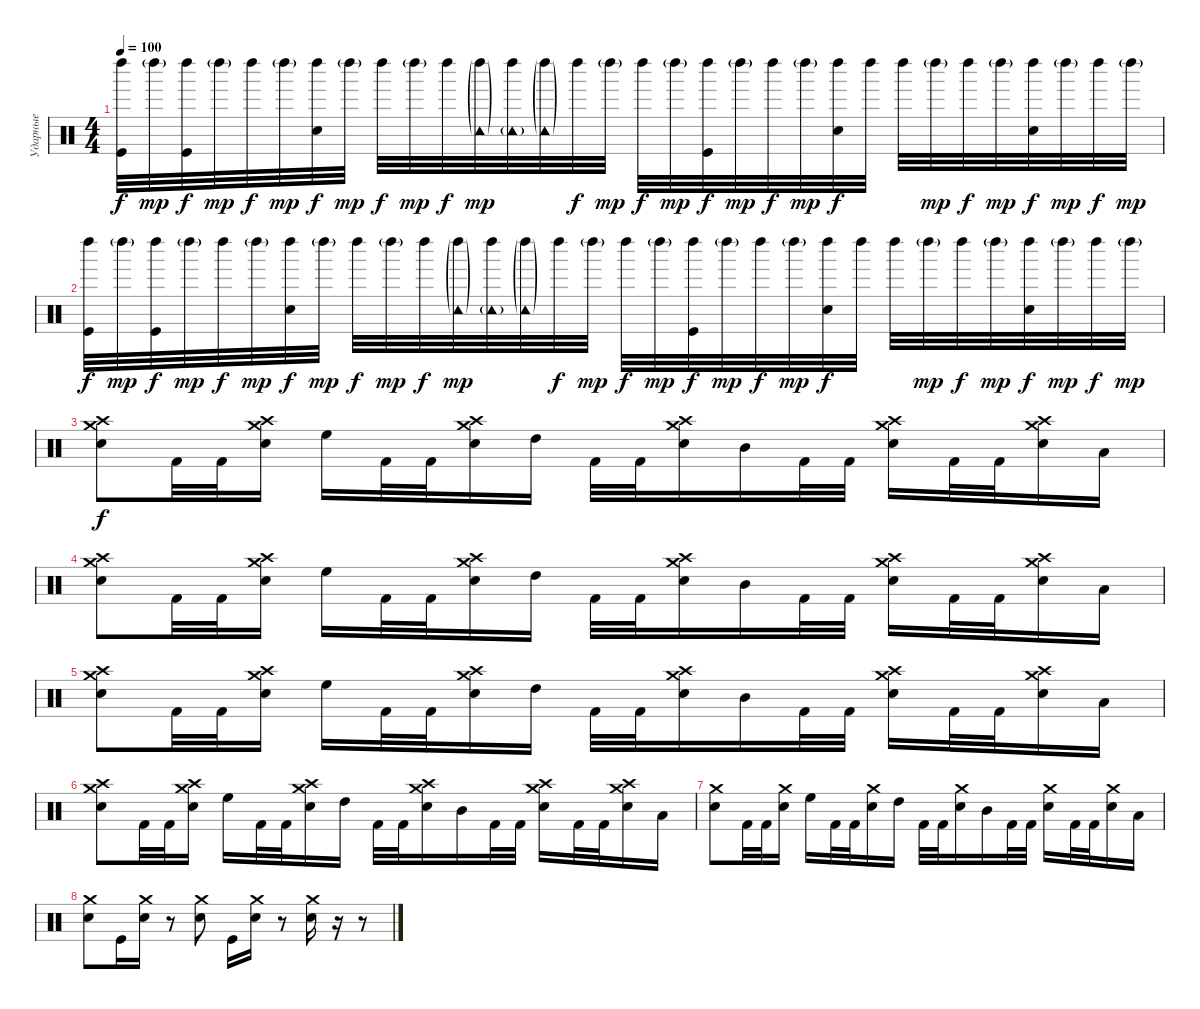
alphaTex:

\track ("Ударные" "Ударные") {instrument percussion}
\staff {score}
\articulation defaults
\ts (4 4)
\tempo 100
\clef neutral
\ks c
("Left Maraca (hit)" "Kick (hit)").32{dy f} "Left Maraca (hit)"{g}.32{dy mp} ("Left Maraca (hit)" "Kick (hit)").32{dy f} "Left Maraca (hit)"{g}.32{dy mp} "Left Maraca (hit)".32{dy f} "Left Maraca (hit)"{g}.32{dy mp} ("Left Maraca (hit)" "Electric Snare (hit)").32{dy f} "Left Maraca (hit)"{g}.32{dy mp} "Left Maraca (hit)".32{dy f} "Left Maraca (hit)"{g}.32{dy mp} "Left Maraca (hit)".32{dy f} ("Left Maraca (hit)"{g} "Tambourine (hit)"{g}).32{dy mp} ("Left Maraca (hit)" "Tambourine (hit)"{g}).32 ("Left Maraca (hit)"{g} "Tambourine (hit)"{g}).32 "Left Maraca (hit)".32{dy f} "Left Maraca (hit)"{g}.32{dy mp} "Left Maraca (hit)".32{dy f} "Left Maraca (hit)"{g}.32{dy mp} ("Left Maraca (hit)" "Kick (hit)").32{dy f} "Left Maraca (hit)"{g}.32{dy mp} "Left Maraca (hit)".32{dy f} "Left Maraca (hit)"{g}.32{dy mp} ("Left Maraca (hit)" "Electric Snare (hit)").32{dy f} "Left Maraca (hit)".32 "Left Maraca (hit)".32 "Left Maraca (hit)"{g}.32{dy mp} "Left Maraca (hit)".32{dy f} "Left Maraca (hit)"{g}.32{dy mp} ("Left Maraca (hit)" "Electric Snare (hit)").32{dy f} "Left Maraca (hit)"{g}.32{dy mp} "Left Maraca (hit)".32{dy f} "Left Maraca (hit)"{g}.32{dy mp} |
("Left Maraca (hit)" "Kick (hit)").32{dy f} "Left Maraca (hit)"{g}.32{dy mp} ("Left Maraca (hit)" "Kick (hit)").32{dy f} "Left Maraca (hit)"{g}.32{dy mp} "Left Maraca (hit)".32{dy f} "Left Maraca (hit)"{g}.32{dy mp} ("Left Maraca (hit)" "Electric Snare (hit)").32{dy f} "Left Maraca (hit)"{g}.32{dy mp} "Left Maraca (hit)".32{dy f} "Left Maraca (hit)"{g}.32{dy mp} "Left Maraca (hit)".32{dy f} ("Left Maraca (hit)"{g} "Tambourine (hit)"{g}).32{dy mp} ("Left Maraca (hit)" "Tambourine (hit)"{g}).32 ("Left Maraca (hit)"{g} "Tambourine (hit)"{g}).32 "Left Maraca (hit)".32{dy f} "Left Maraca (hit)"{g}.32{dy mp} "Left Maraca (hit)".32{dy f} "Left Maraca (hit)"{g}.32{dy mp} ("Left Maraca (hit)" "Kick (hit)").32{dy f} "Left Maraca (hit)"{g}.32{dy mp} "Left Maraca (hit)".32{dy f} "Left Maraca (hit)"{g}.32{dy mp} ("Left Maraca (hit)" "Electric Snare (hit)").32{dy f} "Left Maraca (hit)".32 "Left Maraca (hit)".32 "Left Maraca (hit)"{g}.32{dy mp} "Left Maraca (hit)".32{dy f} "Left Maraca (hit)"{g}.32{dy mp} ("Left Maraca (hit)" "Electric Snare (hit)").32{dy f} "Left Maraca (hit)"{g}.32{dy mp} "Left Maraca (hit)".32{dy f} "Left Maraca (hit)"{g}.32{dy mp} |
("Crash high (hit)" "Crash medium (hit)" "Electric Snare (hit)").8{dy f} "Kick (hit) 2".32 "Kick (hit) 2".32 ("Crash high (hit)" "Crash medium (hit)" "Electric Snare (hit)").16 "High Floor Tom (hit)".16 "Kick (hit) 2".32 "Kick (hit) 2".32 ("Crash high (hit)" "Crash medium (hit)" "Electric Snare (hit)").16 "High Tom (hit)".16 "Kick (hit) 2".32 "Kick (hit) 2".32 ("Crash high (hit)" "Crash medium (hit)" "Electric Snare (hit)").16 "Mid Tom (hit)".16 "Kick (hit) 2".32 "Kick (hit) 2".32 ("Crash high (hit)" "Crash medium (hit)" "Electric Snare (hit)").16 "Kick (hit) 2".32 "Kick (hit) 2".32 ("Crash high (hit)" "Crash medium (hit)" "Electric Snare (hit)").16 "Low Tom (hit)".16 |
("Crash high (hit)" "Crash medium (hit)" "Electric Snare (hit)").8 "Kick (hit) 2".32 "Kick (hit) 2".32 ("Crash high (hit)" "Crash medium (hit)" "Electric Snare (hit)").16 "High Floor Tom (hit)".16 "Kick (hit) 2".32 "Kick (hit) 2".32 ("Crash high (hit)" "Crash medium (hit)" "Electric Snare (hit)").16 "High Tom (hit)".16 "Kick (hit) 2".32 "Kick (hit) 2".32 ("Crash high (hit)" "Crash medium (hit)" "Electric Snare (hit)").16 "Mid Tom (hit)".16 "Kick (hit) 2".32 "Kick (hit) 2".32 ("Crash high (hit)" "Crash medium (hit)" "Electric Snare (hit)").16 "Kick (hit) 2".32 "Kick (hit) 2".32 ("Crash high (hit)" "Crash medium (hit)" "Electric Snare (hit)").16 "Low Tom (hit)".16 |
("Crash high (hit)" "Crash medium (hit)" "Electric Snare (hit)").8 "Kick (hit) 2".32 "Kick (hit) 2".32 ("Crash high (hit)" "Crash medium (hit)" "Electric Snare (hit)").16 "High Floor Tom (hit)".16 "Kick (hit) 2".32 "Kick (hit) 2".32 ("Crash high (hit)" "Crash medium (hit)" "Electric Snare (hit)").16 "High Tom (hit)".16 "Kick (hit) 2".32 "Kick (hit) 2".32 ("Crash high (hit)" "Crash medium (hit)" "Electric Snare (hit)").16 "Mid Tom (hit)".16 "Kick (hit) 2".32 "Kick (hit) 2".32 ("Crash high (hit)" "Crash medium (hit)" "Electric Snare (hit)").16 "Kick (hit) 2".32 "Kick (hit) 2".32 ("Crash high (hit)" "Crash medium (hit)" "Electric Snare (hit)").16 "Low Tom (hit)".16 |
("Crash high (hit)" "Crash medium (hit)" "Electric Snare (hit)").8 "Kick (hit) 2".32 "Kick (hit) 2".32 ("Crash high (hit)" "Crash medium (hit)" "Electric Snare (hit)").16 "High Floor Tom (hit)".16 "Kick (hit) 2".32 "Kick (hit) 2".32 ("Crash high (hit)" "Crash medium (hit)" "Electric Snare (hit)").16 "High Tom (hit)".16 "Kick (hit) 2".32 "Kick (hit) 2".32 ("Crash high (hit)" "Crash medium (hit)" "Electric Snare (hit)").16 "Mid Tom (hit)".16 "Kick (hit) 2".32 "Kick (hit) 2".32 ("Crash high (hit)" "Crash medium (hit)" "Electric Snare (hit)").16 "Kick (hit) 2".32 "Kick (hit) 2".32 ("Crash high (hit)" "Crash medium (hit)" "Electric Snare (hit)").16 "Low Tom (hit)".16 |
("Crash medium (hit)" "Electric Snare (hit)").8 "Kick (hit) 2".32 "Kick (hit) 2".32 ("Crash medium (hit)" "Electric Snare (hit)").16 "High Floor Tom (hit)".16 "Kick (hit) 2".32 "Kick (hit) 2".32 ("Crash medium (hit)" "Electric Snare (hit)").16 "High Tom (hit)".16 "Kick (hit) 2".32 "Kick (hit) 2".32 ("Crash medium (hit)" "Electric Snare (hit)").16 "Mid Tom (hit)".16 "Kick (hit) 2".32 "Kick (hit) 2".32 ("Crash medium (hit)" "Electric Snare (hit)").16 "Kick (hit) 2".32 "Kick (hit) 2".32 ("Crash medium (hit)" "Electric Snare (hit)").16 "Low Tom (hit)".16 |
("Crash medium (hit)" "Electric Snare (hit)").8 "Kick (hit)".16 ("Crash medium (hit)" "Electric Snare (hit)").16 r.8 ("Crash medium (hit)" "Electric Snare (hit)").8 "Kick (hit)".16 ("Crash medium (hit)" "Electric Snare (hit)").16 r.8 ("Crash medium (hit)" "Electric Snare (hit)").16 r.16 r.8
